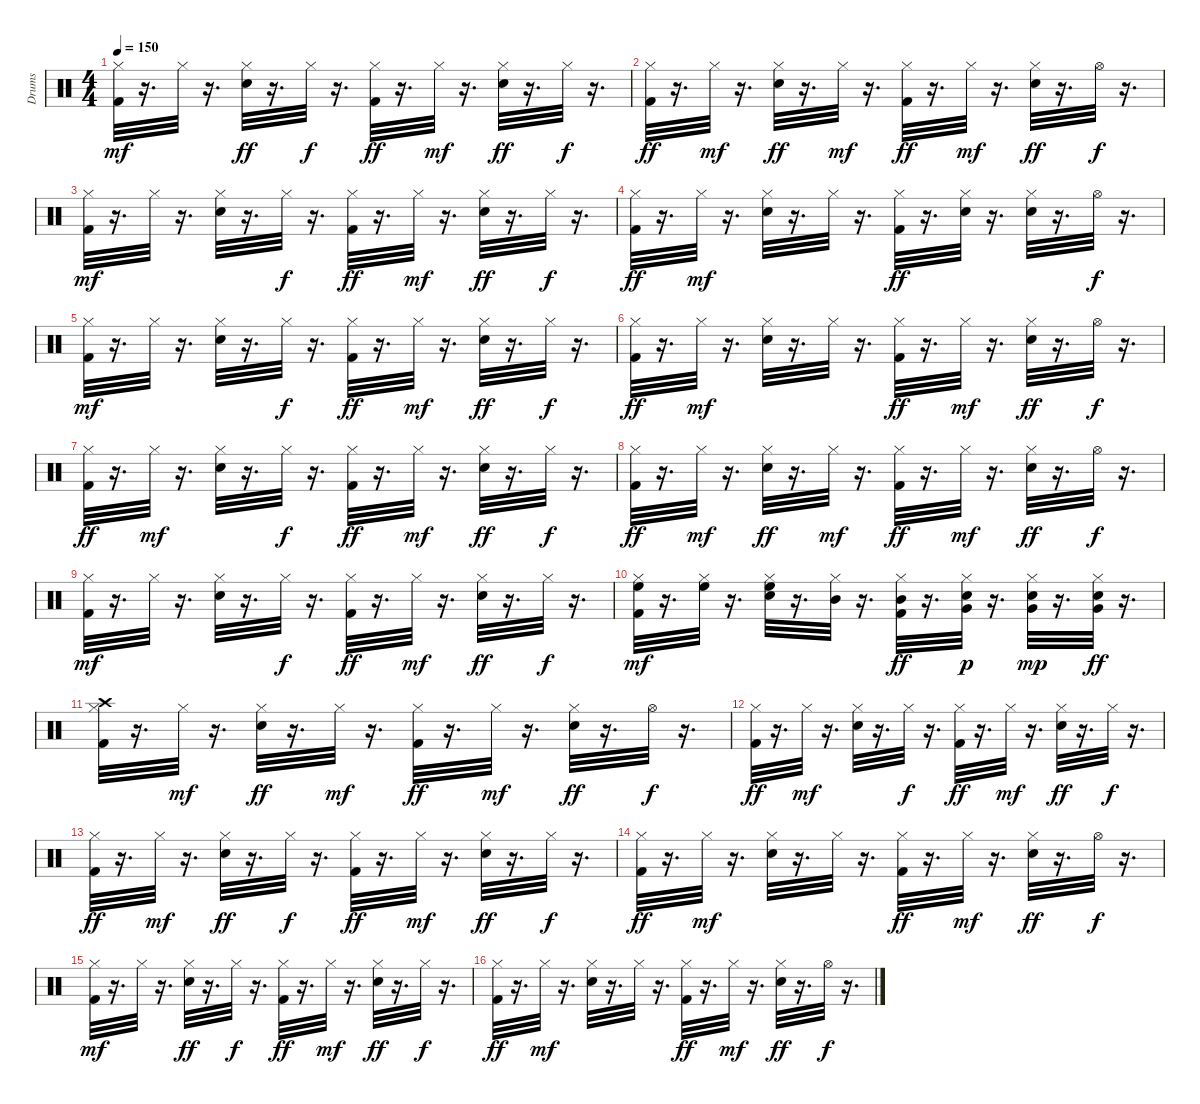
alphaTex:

\track ("Drums" "Drums") {instrument percussion}
\staff {score}
\articulation defaults
\ts (4 4)
\tempo 150
\clef neutral
\ks c
("Kick (hit) 2" "Hi-Hat (closed)").32{dy mf} r.16{d} "Hi-Hat (closed)".32 r.16{d} ("Hi-Hat (closed)" "Snare (hit) 2").32{dy ff} r.16{d} "Hi-Hat (closed)".32{dy f} r.16{d} ("Kick (hit) 2" "Hi-Hat (closed)").32{dy ff} r.16{d} "Hi-Hat (closed)".32{dy mf} r.16{d} ("Hi-Hat (closed)" "Snare (hit) 2").32{dy ff} r.16{d} "Hi-Hat (closed)".32{dy f} r.16{d} |
("Hi-Hat (closed)" "Kick (hit) 2").32{dy ff} r.16{d} "Hi-Hat (closed)".32{dy mf} r.16{d} ("Hi-Hat (closed)" "Snare (hit) 2").32{dy ff} r.16{d} "Hi-Hat (closed)".32{dy mf} r.16{d} ("Kick (hit) 2" "Hi-Hat (closed)").32{dy ff} r.16{d} "Hi-Hat (closed)".32{dy mf} r.16{d} ("Snare (hit) 2" "Hi-Hat (closed)").32{dy ff} r.16{d} "Hi-Hat (open)".32{dy f} r.16{d} |
("Kick (hit) 2" "Hi-Hat (closed)").32{dy mf} r.16{d} "Hi-Hat (closed)".32 r.16{d} ("Snare (hit) 2" "Hi-Hat (closed)").32 r.16{d} "Hi-Hat (closed)".32{dy f} r.16{d} ("Kick (hit) 2" "Hi-Hat (closed)").32{dy ff} r.16{d} "Hi-Hat (closed)".32{dy mf} r.16{d} ("Hi-Hat (closed)" "Snare (hit) 2").32{dy ff} r.16{d} "Hi-Hat (closed)".32{dy f} r.16{d} |
("Kick (hit) 2" "Hi-Hat (closed)").32{dy ff} r.16{d} "Hi-Hat (closed)".32{dy mf} r.16{d} ("Snare (hit) 2" "Hi-Hat (closed)").32 r.16{d} "Hi-Hat (closed)".32 r.16{d} ("Kick (hit) 2" "Hi-Hat (closed)").32{dy ff} r.16{d} ("Hi-Hat (closed)" "Snare (hit) 2").32 r.16{d} ("Hi-Hat (closed)" "Snare (hit) 2").32 r.16{d} "Hi-Hat (open)".32{dy f} r.16{d} |
("Kick (hit) 2" "Hi-Hat (closed)").32{dy mf} r.16{d} "Hi-Hat (closed)".32 r.16{d} ("Snare (hit) 2" "Hi-Hat (closed)").32 r.16{d} "Hi-Hat (closed)".32{dy f} r.16{d} ("Hi-Hat (closed)" "Kick (hit) 2").32{dy ff} r.16{d} "Hi-Hat (closed)".32{dy mf} r.16{d} ("Hi-Hat (closed)" "Snare (hit) 2").32{dy ff} r.16{d} "Hi-Hat (closed)".32{dy f} r.16{d} |
("Kick (hit) 2" "Hi-Hat (closed)").32{dy ff} r.16{d} "Hi-Hat (closed)".32{dy mf} r.16{d} ("Snare (hit) 2" "Hi-Hat (closed)").32 r.16{d} "Hi-Hat (closed)".32 r.16{d} ("Hi-Hat (closed)" "Kick (hit) 2").32{dy ff} r.16{d} "Hi-Hat (closed)".32{dy mf} r.16{d} ("Snare (hit) 2" "Hi-Hat (closed)").32{dy ff} r.16{d} "Hi-Hat (open)".32{dy f} r.16{d} |
("Hi-Hat (closed)" "Kick (hit) 2").32{dy ff} r.16{d} "Hi-Hat (closed)".32{dy mf} r.16{d} ("Snare (hit) 2" "Hi-Hat (closed)").32 r.16{d} "Hi-Hat (closed)".32{dy f} r.16{d} ("Hi-Hat (closed)" "Kick (hit) 2").32{dy ff} r.16{d} "Hi-Hat (closed)".32{dy mf} r.16{d} ("Hi-Hat (closed)" "Snare (hit) 2").32{dy ff} r.16{d} "Hi-Hat (closed)".32{dy f} r.16{d} |
("Kick (hit) 2" "Hi-Hat (closed)").32{dy ff} r.16{d} "Hi-Hat (closed)".32{dy mf} r.16{d} ("Hi-Hat (closed)" "Snare (hit) 2").32{dy ff} r.16{d} "Hi-Hat (closed)".32{dy mf} r.16{d} ("Hi-Hat (closed)" "Kick (hit) 2").32{dy ff} r.16{d} "Hi-Hat (closed)".32{dy mf} r.16{d} ("Snare (hit) 2" "Hi-Hat (closed)").32{dy ff} r.16{d} "Hi-Hat (open)".32{dy f} r.16{d} |
("Kick (hit) 2" "Hi-Hat (closed)").32{dy mf} r.16{d} "Hi-Hat (closed)".32 r.16{d} ("Snare (hit) 2" "Hi-Hat (closed)").32 r.16{d} "Hi-Hat (closed)".32{dy f} r.16{d} ("Kick (hit) 2" "Hi-Hat (closed)").32{dy ff} r.16{d} "Hi-Hat (closed)".32{dy mf} r.16{d} ("Snare (hit) 2" "Hi-Hat (closed)").32{dy ff} r.16{d} "Hi-Hat (closed)".32{dy f} r.16{d} |
("Kick (hit) 2" "Hi-Hat (closed)" "High Floor Tom (hit)").32{dy mf} r.16{d} ("Hi-Hat (closed)" "High Floor Tom (hit)").32 r.16{d} ("Snare (hit) 2" "Hi-Hat (closed)" "High Floor Tom (hit)").32 r.16{d} ("Hi-Hat (closed)" "Mid Tom (hit)").32 r.16{d} ("Kick (hit) 2" "Hi-Hat (closed)" "Mid Tom (hit)").32{dy ff} r.16{d} ("Hi-Hat (closed)" "Snare (hit) 2" "Very Low Tom (hit)").32{dy p} r.16{d} ("Hi-Hat (closed)" "Snare (hit) 2" "Very Low Tom (hit)").32{dy mp} r.16{d} ("Hi-Hat (closed)" "Snare (hit) 2" "Very Low Tom (hit)").32{dy ff} r.16{d} |
("Kick (hit) 2" "Hi-Hat (closed)" "Crash high (hit)").32 r.16{d} "Hi-Hat (closed)".32{dy mf} r.16{d} ("Hi-Hat (closed)" "Snare (hit) 2").32{dy ff} r.16{d} "Hi-Hat (closed)".32{dy mf} r.16{d} ("Hi-Hat (closed)" "Kick (hit) 2").32{dy ff} r.16{d} "Hi-Hat (closed)".32{dy mf} r.16{d} ("Snare (hit) 2" "Hi-Hat (closed)").32{dy ff} r.16{d} "Hi-Hat (open)".32{dy f} r.16{d} |
("Hi-Hat (closed)" "Kick (hit) 2").32{dy ff} r.16{d} "Hi-Hat (closed)".32{dy mf} r.16{d} ("Snare (hit) 2" "Hi-Hat (closed)").32 r.16{d} "Hi-Hat (closed)".32{dy f} r.16{d} ("Kick (hit) 2" "Hi-Hat (closed)").32{dy ff} r.16{d} "Hi-Hat (closed)".32{dy mf} r.16{d} ("Snare (hit) 2" "Hi-Hat (closed)").32{dy ff} r.16{d} "Hi-Hat (closed)".32{dy f} r.16{d} |
("Hi-Hat (closed)" "Kick (hit) 2").32{dy ff} r.16{d} "Hi-Hat (closed)".32{dy mf} r.16{d} ("Hi-Hat (closed)" "Snare (hit) 2").32{dy ff} r.16{d} "Hi-Hat (closed)".32{dy f} r.16{d} ("Kick (hit) 2" "Hi-Hat (closed)").32{dy ff} r.16{d} "Hi-Hat (closed)".32{dy mf} r.16{d} ("Snare (hit) 2" "Hi-Hat (closed)").32{dy ff} r.16{d} "Hi-Hat (closed)".32{dy f} r.16{d} |
("Kick (hit) 2" "Hi-Hat (closed)").32{dy ff} r.16{d} "Hi-Hat (closed)".32{dy mf} r.16{d} ("Snare (hit) 2" "Hi-Hat (closed)").32 r.16{d} "Hi-Hat (closed)".32 r.16{d} ("Kick (hit) 2" "Hi-Hat (closed)").32{dy ff} r.16{d} "Hi-Hat (closed)".32{dy mf} r.16{d} ("Hi-Hat (closed)" "Snare (hit) 2").32{dy ff} r.16{d} "Hi-Hat (open)".32{dy f} r.16{d} |
("Kick (hit) 2" "Hi-Hat (closed)").32{dy mf} r.16{d} "Hi-Hat (closed)".32 r.16{d} ("Hi-Hat (closed)" "Snare (hit) 2").32{dy ff} r.16{d} "Hi-Hat (closed)".32{dy f} r.16{d} ("Kick (hit) 2" "Hi-Hat (closed)").32{dy ff} r.16{d} "Hi-Hat (closed)".32{dy mf} r.16{d} ("Snare (hit) 2" "Hi-Hat (closed)").32{dy ff} r.16{d} "Hi-Hat (closed)".32{dy f} r.16{d} |
("Kick (hit) 2" "Hi-Hat (closed)").32{dy ff} r.16{d} "Hi-Hat (closed)".32{dy mf} r.16{d} ("Snare (hit) 2" "Hi-Hat (closed)").32 r.16{d} "Hi-Hat (closed)".32 r.16{d} ("Kick (hit) 2" "Hi-Hat (closed)").32{dy ff} r.16{d} "Hi-Hat (closed)".32{dy mf} r.16{d} ("Snare (hit) 2" "Hi-Hat (closed)").32{dy ff} r.16{d} "Hi-Hat (open)".32{dy f} r.16{d}
